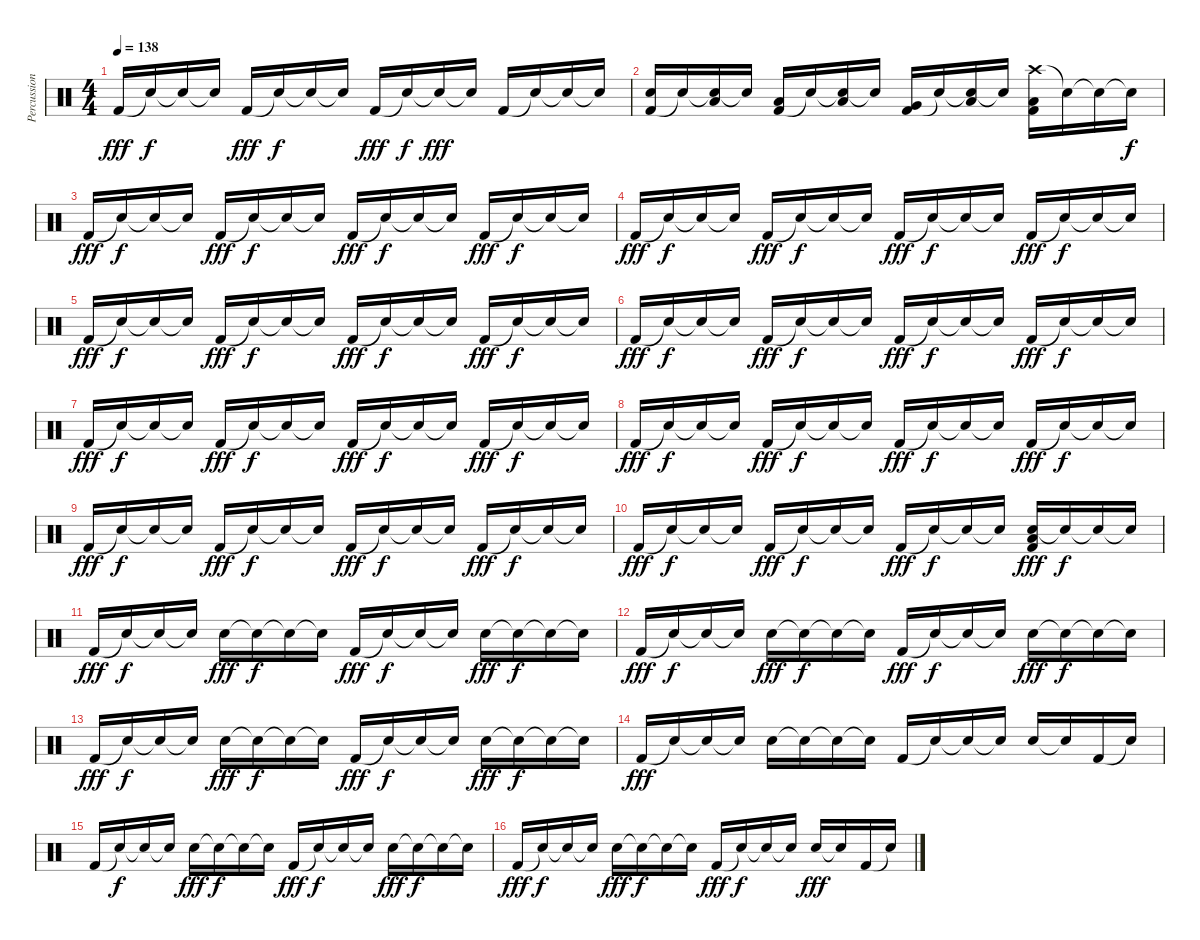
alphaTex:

\track ("Percussion" "Percussion") {instrument percussion}
\staff {score}
\articulation defaults
\ts (4 4)
\tempo 138
\clef neutral
\ks c "Kick (hit) 2".16{dy fff} "Snare (hit)"{t}.16{dy f} "Snare (hit)"{t}.16 "Snare (hit)"{t}.16 "Kick (hit) 2".16{dy fff} "Snare (hit)"{t}.16{dy f} "Snare (hit)"{t}.16 "Snare (hit)"{t}.16 "Kick (hit) 2".16{dy fff} "Snare (hit)"{t}.16{dy f} "Snare (hit)"{t}.16{dy fff} "Snare (hit)"{t}.16 "Kick (hit) 2".16 "Snare (hit)"{t}.16 "Snare (hit)"{t}.16 "Snare (hit)"{t}.16
|
("Kick (hit) 2" "Electric Snare (hit)").16 "Snare (hit)"{t}.16 ("Snare (hit)"{t} "Low Floor Tom (hit)").16 "Snare (hit)"{t}.16 ("Kick (hit) 2" "Low Tom (hit)").16 "Snare (hit)"{t}.16 ("Snare (hit)"{t} "Low Floor Tom (hit)").16 "Snare (hit)"{t}.16 ("Kick (hit) 2" "Very Low Tom (hit)").16 "Snare (hit)"{t}.16 ("Snare (hit)"{t} "Low Floor Tom (hit)").16 "Snare (hit)"{t}.16 ("Crash high (hit)" "Kick (hit) 2" "Low Floor Tom (hit)").16 "Snare (hit)"{t}.16 "Snare (hit)"{t}.16 "Snare (hit)"{t}.16{dy f} |
"Kick (hit) 2".16{dy fff} "Snare (hit)"{t}.16{dy f} "Snare (hit)"{t}.16 "Snare (hit)"{t}.16 "Kick (hit) 2".16{dy fff} "Snare (hit)"{t}.16{dy f} "Snare (hit)"{t}.16 "Snare (hit)"{t}.16 "Kick (hit) 2".16{dy fff} "Snare (hit)"{t}.16{dy f} "Snare (hit)"{t}.16 "Snare (hit)"{t}.16 "Kick (hit) 2".16{dy fff} "Snare (hit)"{t}.16{dy f} "Snare (hit)"{t}.16 "Snare (hit)"{t}.16 |
"Kick (hit) 2".16{dy fff} "Snare (hit)"{t}.16{dy f} "Snare (hit)"{t}.16 "Snare (hit)"{t}.16 "Kick (hit) 2".16{dy fff} "Snare (hit)"{t}.16{dy f} "Snare (hit)"{t}.16 "Snare (hit)"{t}.16 "Kick (hit) 2".16{dy fff} "Snare (hit)"{t}.16{dy f} "Snare (hit)"{t}.16 "Snare (hit)"{t}.16 "Kick (hit) 2".16{dy fff} "Snare (hit)"{t}.16{dy f} "Snare (hit)"{t}.16 "Snare (hit)"{t}.16 |
"Kick (hit) 2".16{dy fff} "Snare (hit)"{t}.16{dy f} "Snare (hit)"{t}.16 "Snare (hit)"{t}.16 "Kick (hit) 2".16{dy fff} "Snare (hit)"{t}.16{dy f} "Snare (hit)"{t}.16 "Snare (hit)"{t}.16 "Kick (hit) 2".16{dy fff} "Snare (hit)"{t}.16{dy f} "Snare (hit)"{t}.16 "Snare (hit)"{t}.16 "Kick (hit) 2".16{dy fff} "Snare (hit)"{t}.16{dy f} "Snare (hit)"{t}.16 "Snare (hit)"{t}.16 |
"Kick (hit) 2".16{dy fff} "Snare (hit)"{t}.16{dy f} "Snare (hit)"{t}.16 "Snare (hit)"{t}.16 "Kick (hit) 2".16{dy fff} "Snare (hit)"{t}.16{dy f} "Snare (hit)"{t}.16 "Snare (hit)"{t}.16 "Kick (hit) 2".16{dy fff} "Snare (hit)"{t}.16{dy f} "Snare (hit)"{t}.16 "Snare (hit)"{t}.16 "Kick (hit) 2".16{dy fff} "Snare (hit)"{t}.16{dy f} "Snare (hit)"{t}.16 "Snare (hit)"{t}.16 |
"Kick (hit) 2".16{dy fff} "Snare (hit)"{t}.16{dy f} "Snare (hit)"{t}.16 "Snare (hit)"{t}.16 "Kick (hit) 2".16{dy fff} "Snare (hit)"{t}.16{dy f} "Snare (hit)"{t}.16 "Snare (hit)"{t}.16 "Kick (hit) 2".16{dy fff} "Snare (hit)"{t}.16{dy f} "Snare (hit)"{t}.16 "Snare (hit)"{t}.16 "Kick (hit) 2".16{dy fff} "Snare (hit)"{t}.16{dy f} "Snare (hit)"{t}.16 "Snare (hit)"{t}.16 |
"Kick (hit) 2".16{dy fff} "Snare (hit)"{t}.16{dy f} "Snare (hit)"{t}.16 "Snare (hit)"{t}.16 "Kick (hit) 2".16{dy fff} "Snare (hit)"{t}.16{dy f} "Snare (hit)"{t}.16 "Snare (hit)"{t}.16 "Kick (hit) 2".16{dy fff} "Snare (hit)"{t}.16{dy f} "Snare (hit)"{t}.16 "Snare (hit)"{t}.16 "Kick (hit) 2".16{dy fff} "Snare (hit)"{t}.16{dy f} "Snare (hit)"{t}.16 "Snare (hit)"{t}.16 |
"Kick (hit) 2".16{dy fff} "Snare (hit)"{t}.16{dy f} "Snare (hit)"{t}.16 "Snare (hit)"{t}.16 "Kick (hit) 2".16{dy fff} "Snare (hit)"{t}.16{dy f} "Snare (hit)"{t}.16 "Snare (hit)"{t}.16 "Kick (hit) 2".16{dy fff} "Snare (hit)"{t}.16{dy f} "Snare (hit)"{t}.16 "Snare (hit)"{t}.16 "Kick (hit) 2".16{dy fff} "Snare (hit)"{t}.16{dy f} "Snare (hit)"{t}.16 "Snare (hit)"{t}.16 |
"Kick (hit) 2".16{dy fff} "Snare (hit)"{t}.16{dy f} "Snare (hit)"{t}.16 "Snare (hit)"{t}.16 "Kick (hit) 2".16{dy fff} "Snare (hit)"{t}.16{dy f} "Snare (hit)"{t}.16 "Snare (hit)"{t}.16 "Kick (hit) 2".16{dy fff} "Snare (hit)"{t}.16{dy f} "Snare (hit)"{t}.16 "Snare (hit)"{t}.16 ("Electric Snare (hit)" "Kick (hit) 2" "Low Floor Tom (hit)").16{dy fff} "Snare (hit)"{t}.16{dy f} "Snare (hit)"{t}.16 "Snare (hit)"{t}.16 |
"Kick (hit) 2".16{dy fff} "Snare (hit)"{t}.16{dy f} "Snare (hit)"{t}.16 "Snare (hit)"{t}.16 "Electric Snare (hit)".16{dy fff} "Snare (hit)"{t}.16{dy f} "Snare (hit)"{t}.16 "Snare (hit)"{t}.16 "Kick (hit) 2".16{dy fff} "Snare (hit)"{t}.16{dy f} "Snare (hit)"{t}.16 "Snare (hit)"{t}.16 "Electric Snare (hit)".16{dy fff} "Snare (hit)"{t}.16{dy f} "Snare (hit)"{t}.16 "Snare (hit)"{t}.16 |
"Kick (hit) 2".16{dy fff} "Snare (hit)"{t}.16{dy f} "Snare (hit)"{t}.16 "Snare (hit)"{t}.16 "Electric Snare (hit)".16{dy fff} "Snare (hit)"{t}.16{dy f} "Snare (hit)"{t}.16 "Snare (hit)"{t}.16 "Kick (hit) 2".16{dy fff} "Snare (hit)"{t}.16{dy f} "Snare (hit)"{t}.16 "Snare (hit)"{t}.16 "Electric Snare (hit)".16{dy fff} "Snare (hit)"{t}.16{dy f} "Snare (hit)"{t}.16 "Snare (hit)"{t}.16 |
"Kick (hit) 2".16{dy fff} "Snare (hit)"{t}.16{dy f} "Snare (hit)"{t}.16 "Snare (hit)"{t}.16 "Electric Snare (hit)".16{dy fff} "Snare (hit)"{t}.16{dy f} "Snare (hit)"{t}.16 "Snare (hit)"{t}.16 "Kick (hit) 2".16{dy fff} "Snare (hit)"{t}.16{dy f} "Snare (hit)"{t}.16 "Snare (hit)"{t}.16 "Electric Snare (hit)".16{dy fff} "Snare (hit)"{t}.16{dy f} "Snare (hit)"{t}.16 "Snare (hit)"{t}.16 |
"Kick (hit) 2".16{dy fff} "Snare (hit)"{t}.16 "Snare (hit)"{t}.16 "Snare (hit)"{t}.16 "Electric Snare (hit)".16 "Snare (hit)"{t}.16 "Snare (hit)"{t}.16 "Snare (hit)"{t}.16 "Kick (hit) 2".16 "Snare (hit)"{t}.16 "Snare (hit)"{t}.16 "Snare (hit)"{t}.16 "Electric Snare (hit)".16 "Snare (hit)"{t}.16 "Kick (hit) 2".16 "Snare (hit)"{t}.16 |
"Kick (hit) 2".16 "Snare (hit)"{t}.16{dy f} "Snare (hit)"{t}.16 "Snare (hit)"{t}.16 "Electric Snare (hit)".16{dy fff} "Snare (hit)"{t}.16{dy f} "Snare (hit)"{t}.16 "Snare (hit)"{t}.16 "Kick (hit) 2".16{dy fff} "Snare (hit)"{t}.16{dy f} "Snare (hit)"{t}.16 "Snare (hit)"{t}.16 "Electric Snare (hit)".16{dy fff} "Snare (hit)"{t}.16{dy f} "Snare (hit)"{t}.16 "Snare (hit)"{t}.16 |
"Kick (hit) 2".16{dy fff} "Snare (hit)"{t}.16{dy f} "Snare (hit)"{t}.16 "Snare (hit)"{t}.16 "Electric Snare (hit)".16{dy fff} "Snare (hit)"{t}.16{dy f} "Snare (hit)"{t}.16 "Snare (hit)"{t}.16 "Kick (hit) 2".16{dy fff} "Snare (hit)"{t}.16{dy f} "Snare (hit)"{t}.16 "Snare (hit)"{t}.16 "Electric Snare (hit)".16{dy fff} "Snare (hit)"{t}.16 "Kick (hit) 2".16 "Snare (hit)"{t}.16
